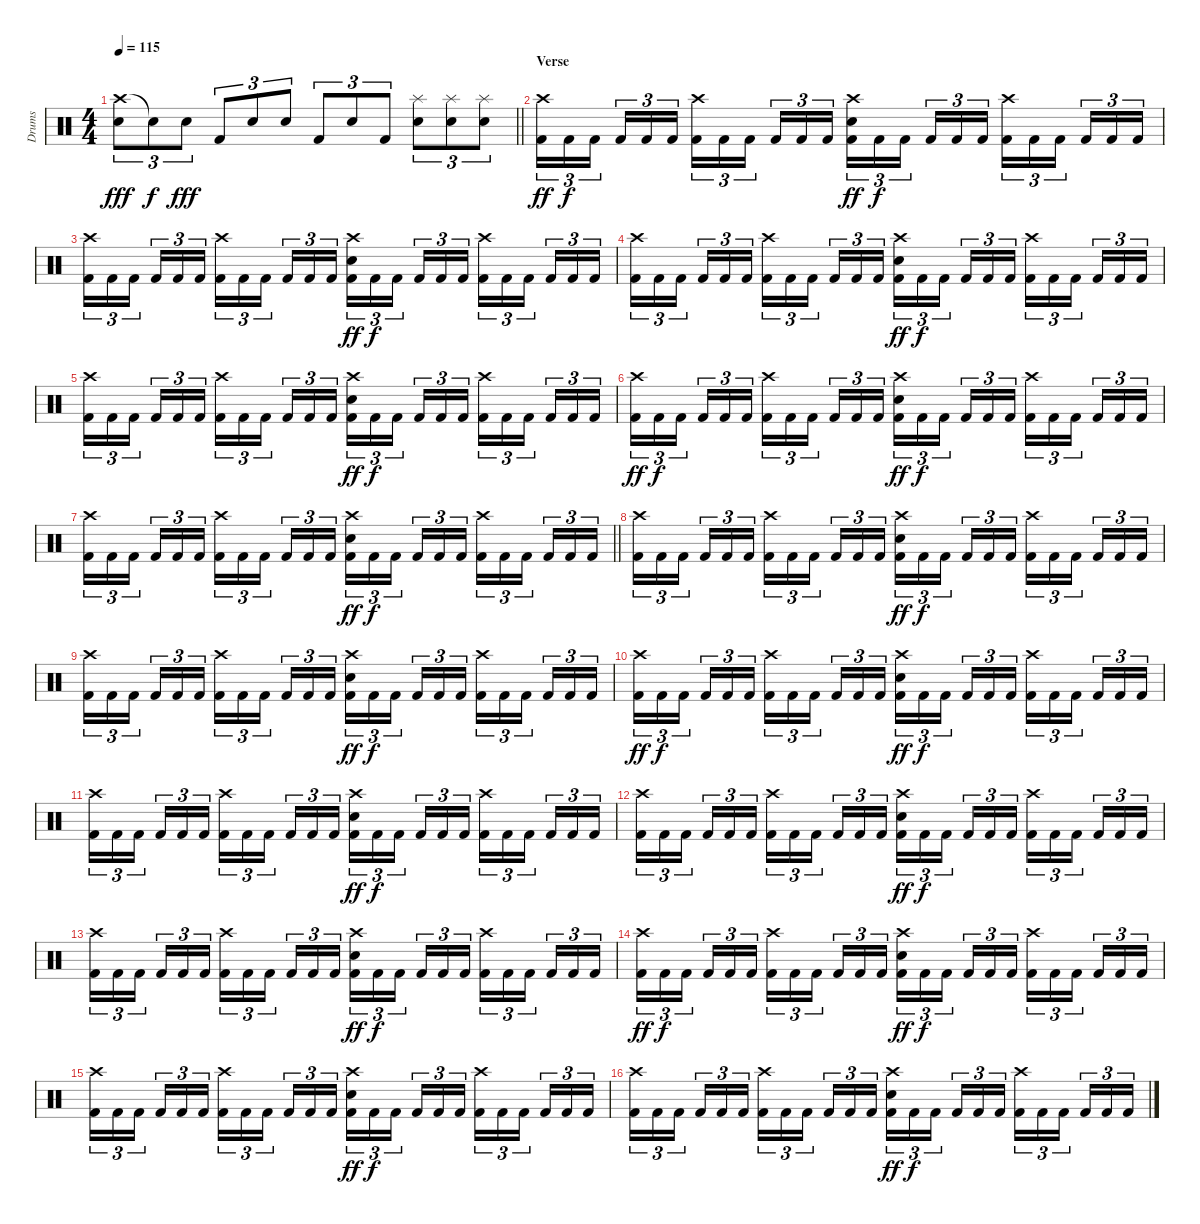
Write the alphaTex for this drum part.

\track ("Drums" "Drums") {instrument percussion}
\staff {score}
\articulation defaults
\ts (4 4)
\tempo 115
\clef neutral
\barLineRight lightlight
\ks c
("Crash high (hit)" "Snare (hit) 2").8{tu (3 2) dy fff} "Snare (hit)"{t}.8{tu (3 2) dy f} "Snare (hit) 2".8{tu (3 2) dy fff} "Kick (hit) 2".8{tu (3 2)} "Snare (hit) 2".8{tu (3 2)} "Snare (hit) 2".8{tu (3 2)} "Kick (hit) 2".8{tu (3 2)} "Snare (hit) 2".8{tu (3 2)} "Kick (hit) 2".8{tu (3 2)} ("Splash (hit)" "Snare (hit) 2").8{tu (3 2)} ("Splash (hit)" "Snare (hit) 2").8{tu (3 2)} ("Splash (hit)" "Snare (hit) 2").8{tu (3 2)} |
\section ("" "Verse")
("Crash high (hit)" "Kick (hit) 2").16{tu (3 2) dy ff} "Kick (hit) 2".16{tu (3 2) dy f} "Kick (hit) 2".16{tu (3 2) beam splitsecondary} "Kick (hit) 2".16{tu (3 2)} "Kick (hit) 2".16{tu (3 2)} "Kick (hit) 2".16{tu (3 2)} ("Crash high (hit)" "Kick (hit) 2").16{tu (3 2)} "Kick (hit) 2".16{tu (3 2)} "Kick (hit) 2".16{tu (3 2) beam splitsecondary} "Kick (hit) 2".16{tu (3 2)} "Kick (hit) 2".16{tu (3 2)} "Kick (hit) 2".16{tu (3 2)} ("Crash high (hit)" "Snare (hit) 2" "Kick (hit) 2").16{tu (3 2) dy ff} "Kick (hit) 2".16{tu (3 2) dy f} "Kick (hit) 2".16{tu (3 2) beam splitsecondary} "Kick (hit) 2".16{tu (3 2)} "Kick (hit) 2".16{tu (3 2)} "Kick (hit) 2".16{tu (3 2)} ("Crash high (hit)" "Kick (hit) 2").16{tu (3 2)} "Kick (hit) 2".16{tu (3 2)} "Kick (hit) 2".16{tu (3 2) beam splitsecondary} "Kick (hit) 2".16{tu (3 2)} "Kick (hit) 2".16{tu (3 2)} "Kick (hit) 2".16{tu (3 2)} |
("Crash high (hit)" "Kick (hit) 2").16{tu (3 2)} "Kick (hit) 2".16{tu (3 2)} "Kick (hit) 2".16{tu (3 2) beam splitsecondary} "Kick (hit) 2".16{tu (3 2)} "Kick (hit) 2".16{tu (3 2)} "Kick (hit) 2".16{tu (3 2)} ("Crash high (hit)" "Kick (hit) 2").16{tu (3 2)} "Kick (hit) 2".16{tu (3 2)} "Kick (hit) 2".16{tu (3 2) beam splitsecondary} "Kick (hit) 2".16{tu (3 2)} "Kick (hit) 2".16{tu (3 2)} "Kick (hit) 2".16{tu (3 2)} ("Crash high (hit)" "Snare (hit) 2" "Kick (hit) 2").16{tu (3 2) dy ff} "Kick (hit) 2".16{tu (3 2) dy f} "Kick (hit) 2".16{tu (3 2) beam splitsecondary} "Kick (hit) 2".16{tu (3 2)} "Kick (hit) 2".16{tu (3 2)} "Kick (hit) 2".16{tu (3 2)} ("Crash high (hit)" "Kick (hit) 2").16{tu (3 2)} "Kick (hit) 2".16{tu (3 2)} "Kick (hit) 2".16{tu (3 2) beam splitsecondary} "Kick (hit) 2".16{tu (3 2)} "Kick (hit) 2".16{tu (3 2)} "Kick (hit) 2".16{tu (3 2)} |
("Crash high (hit)" "Kick (hit) 2").16{tu (3 2)} "Kick (hit) 2".16{tu (3 2)} "Kick (hit) 2".16{tu (3 2) beam splitsecondary} "Kick (hit) 2".16{tu (3 2)} "Kick (hit) 2".16{tu (3 2)} "Kick (hit) 2".16{tu (3 2)} ("Crash high (hit)" "Kick (hit) 2").16{tu (3 2)} "Kick (hit) 2".16{tu (3 2)} "Kick (hit) 2".16{tu (3 2) beam splitsecondary} "Kick (hit) 2".16{tu (3 2)} "Kick (hit) 2".16{tu (3 2)} "Kick (hit) 2".16{tu (3 2)} ("Crash high (hit)" "Snare (hit) 2" "Kick (hit) 2").16{tu (3 2) dy ff} "Kick (hit) 2".16{tu (3 2) dy f} "Kick (hit) 2".16{tu (3 2) beam splitsecondary} "Kick (hit) 2".16{tu (3 2)} "Kick (hit) 2".16{tu (3 2)} "Kick (hit) 2".16{tu (3 2)} ("Crash high (hit)" "Kick (hit) 2").16{tu (3 2)} "Kick (hit) 2".16{tu (3 2)} "Kick (hit) 2".16{tu (3 2) beam splitsecondary} "Kick (hit) 2".16{tu (3 2)} "Kick (hit) 2".16{tu (3 2)} "Kick (hit) 2".16{tu (3 2)} |
("Crash high (hit)" "Kick (hit) 2").16{tu (3 2)} "Kick (hit) 2".16{tu (3 2)} "Kick (hit) 2".16{tu (3 2) beam splitsecondary} "Kick (hit) 2".16{tu (3 2)} "Kick (hit) 2".16{tu (3 2)} "Kick (hit) 2".16{tu (3 2)} ("Crash high (hit)" "Kick (hit) 2").16{tu (3 2)} "Kick (hit) 2".16{tu (3 2)} "Kick (hit) 2".16{tu (3 2) beam splitsecondary} "Kick (hit) 2".16{tu (3 2)} "Kick (hit) 2".16{tu (3 2)} "Kick (hit) 2".16{tu (3 2)} ("Crash high (hit)" "Snare (hit) 2" "Kick (hit) 2").16{tu (3 2) dy ff} "Kick (hit) 2".16{tu (3 2) dy f} "Kick (hit) 2".16{tu (3 2) beam splitsecondary} "Kick (hit) 2".16{tu (3 2)} "Kick (hit) 2".16{tu (3 2)} "Kick (hit) 2".16{tu (3 2)} ("Crash high (hit)" "Kick (hit) 2").16{tu (3 2)} "Kick (hit) 2".16{tu (3 2)} "Kick (hit) 2".16{tu (3 2) beam splitsecondary} "Kick (hit) 2".16{tu (3 2)} "Kick (hit) 2".16{tu (3 2)} "Kick (hit) 2".16{tu (3 2)} |
("Crash high (hit)" "Kick (hit) 2").16{tu (3 2) dy ff} "Kick (hit) 2".16{tu (3 2) dy f} "Kick (hit) 2".16{tu (3 2) beam splitsecondary} "Kick (hit) 2".16{tu (3 2)} "Kick (hit) 2".16{tu (3 2)} "Kick (hit) 2".16{tu (3 2)} ("Crash high (hit)" "Kick (hit) 2").16{tu (3 2)} "Kick (hit) 2".16{tu (3 2)} "Kick (hit) 2".16{tu (3 2) beam splitsecondary} "Kick (hit) 2".16{tu (3 2)} "Kick (hit) 2".16{tu (3 2)} "Kick (hit) 2".16{tu (3 2)} ("Crash high (hit)" "Snare (hit) 2" "Kick (hit) 2").16{tu (3 2) dy ff} "Kick (hit) 2".16{tu (3 2) dy f} "Kick (hit) 2".16{tu (3 2) beam splitsecondary} "Kick (hit) 2".16{tu (3 2)} "Kick (hit) 2".16{tu (3 2)} "Kick (hit) 2".16{tu (3 2)} ("Crash high (hit)" "Kick (hit) 2").16{tu (3 2)} "Kick (hit) 2".16{tu (3 2)} "Kick (hit) 2".16{tu (3 2) beam splitsecondary} "Kick (hit) 2".16{tu (3 2)} "Kick (hit) 2".16{tu (3 2)} "Kick (hit) 2".16{tu (3 2)} |
\barLineRight lightlight
("Crash high (hit)" "Kick (hit) 2").16{tu (3 2)} "Kick (hit) 2".16{tu (3 2)} "Kick (hit) 2".16{tu (3 2) beam splitsecondary} "Kick (hit) 2".16{tu (3 2)} "Kick (hit) 2".16{tu (3 2)} "Kick (hit) 2".16{tu (3 2)} ("Crash high (hit)" "Kick (hit) 2").16{tu (3 2)} "Kick (hit) 2".16{tu (3 2)} "Kick (hit) 2".16{tu (3 2) beam splitsecondary} "Kick (hit) 2".16{tu (3 2)} "Kick (hit) 2".16{tu (3 2)} "Kick (hit) 2".16{tu (3 2)} ("Crash high (hit)" "Snare (hit) 2" "Kick (hit) 2").16{tu (3 2) dy ff} "Kick (hit) 2".16{tu (3 2) dy f} "Kick (hit) 2".16{tu (3 2) beam splitsecondary} "Kick (hit) 2".16{tu (3 2)} "Kick (hit) 2".16{tu (3 2)} "Kick (hit) 2".16{tu (3 2)} ("Crash high (hit)" "Kick (hit) 2").16{tu (3 2)} "Kick (hit) 2".16{tu (3 2)} "Kick (hit) 2".16{tu (3 2) beam splitsecondary} "Kick (hit) 2".16{tu (3 2)} "Kick (hit) 2".16{tu (3 2)} "Kick (hit) 2".16{tu (3 2)} |
("Crash high (hit)" "Kick (hit) 2").16{tu (3 2)} "Kick (hit) 2".16{tu (3 2)} "Kick (hit) 2".16{tu (3 2) beam splitsecondary} "Kick (hit) 2".16{tu (3 2)} "Kick (hit) 2".16{tu (3 2)} "Kick (hit) 2".16{tu (3 2)} ("Crash high (hit)" "Kick (hit) 2").16{tu (3 2)} "Kick (hit) 2".16{tu (3 2)} "Kick (hit) 2".16{tu (3 2) beam splitsecondary} "Kick (hit) 2".16{tu (3 2)} "Kick (hit) 2".16{tu (3 2)} "Kick (hit) 2".16{tu (3 2)} ("Crash high (hit)" "Snare (hit) 2" "Kick (hit) 2").16{tu (3 2) dy ff} "Kick (hit) 2".16{tu (3 2) dy f} "Kick (hit) 2".16{tu (3 2) beam splitsecondary} "Kick (hit) 2".16{tu (3 2)} "Kick (hit) 2".16{tu (3 2)} "Kick (hit) 2".16{tu (3 2)} ("Crash high (hit)" "Kick (hit) 2").16{tu (3 2)} "Kick (hit) 2".16{tu (3 2)} "Kick (hit) 2".16{tu (3 2) beam splitsecondary} "Kick (hit) 2".16{tu (3 2)} "Kick (hit) 2".16{tu (3 2)} "Kick (hit) 2".16{tu (3 2)} |
("Crash high (hit)" "Kick (hit) 2").16{tu (3 2)} "Kick (hit) 2".16{tu (3 2)} "Kick (hit) 2".16{tu (3 2) beam splitsecondary} "Kick (hit) 2".16{tu (3 2)} "Kick (hit) 2".16{tu (3 2)} "Kick (hit) 2".16{tu (3 2)} ("Crash high (hit)" "Kick (hit) 2").16{tu (3 2)} "Kick (hit) 2".16{tu (3 2)} "Kick (hit) 2".16{tu (3 2) beam splitsecondary} "Kick (hit) 2".16{tu (3 2)} "Kick (hit) 2".16{tu (3 2)} "Kick (hit) 2".16{tu (3 2)} ("Crash high (hit)" "Snare (hit) 2" "Kick (hit) 2").16{tu (3 2) dy ff} "Kick (hit) 2".16{tu (3 2) dy f} "Kick (hit) 2".16{tu (3 2) beam splitsecondary} "Kick (hit) 2".16{tu (3 2)} "Kick (hit) 2".16{tu (3 2)} "Kick (hit) 2".16{tu (3 2)} ("Crash high (hit)" "Kick (hit) 2").16{tu (3 2)} "Kick (hit) 2".16{tu (3 2)} "Kick (hit) 2".16{tu (3 2) beam splitsecondary} "Kick (hit) 2".16{tu (3 2)} "Kick (hit) 2".16{tu (3 2)} "Kick (hit) 2".16{tu (3 2)} |
("Crash high (hit)" "Kick (hit) 2").16{tu (3 2) dy ff} "Kick (hit) 2".16{tu (3 2) dy f} "Kick (hit) 2".16{tu (3 2) beam splitsecondary} "Kick (hit) 2".16{tu (3 2)} "Kick (hit) 2".16{tu (3 2)} "Kick (hit) 2".16{tu (3 2)} ("Crash high (hit)" "Kick (hit) 2").16{tu (3 2)} "Kick (hit) 2".16{tu (3 2)} "Kick (hit) 2".16{tu (3 2) beam splitsecondary} "Kick (hit) 2".16{tu (3 2)} "Kick (hit) 2".16{tu (3 2)} "Kick (hit) 2".16{tu (3 2)} ("Crash high (hit)" "Snare (hit) 2" "Kick (hit) 2").16{tu (3 2) dy ff} "Kick (hit) 2".16{tu (3 2) dy f} "Kick (hit) 2".16{tu (3 2) beam splitsecondary} "Kick (hit) 2".16{tu (3 2)} "Kick (hit) 2".16{tu (3 2)} "Kick (hit) 2".16{tu (3 2)} ("Crash high (hit)" "Kick (hit) 2").16{tu (3 2)} "Kick (hit) 2".16{tu (3 2)} "Kick (hit) 2".16{tu (3 2) beam splitsecondary} "Kick (hit) 2".16{tu (3 2)} "Kick (hit) 2".16{tu (3 2)} "Kick (hit) 2".16{tu (3 2)} |
("Crash high (hit)" "Kick (hit) 2").16{tu (3 2)} "Kick (hit) 2".16{tu (3 2)} "Kick (hit) 2".16{tu (3 2) beam splitsecondary} "Kick (hit) 2".16{tu (3 2)} "Kick (hit) 2".16{tu (3 2)} "Kick (hit) 2".16{tu (3 2)} ("Crash high (hit)" "Kick (hit) 2").16{tu (3 2)} "Kick (hit) 2".16{tu (3 2)} "Kick (hit) 2".16{tu (3 2) beam splitsecondary} "Kick (hit) 2".16{tu (3 2)} "Kick (hit) 2".16{tu (3 2)} "Kick (hit) 2".16{tu (3 2)} ("Crash high (hit)" "Snare (hit) 2" "Kick (hit) 2").16{tu (3 2) dy ff} "Kick (hit) 2".16{tu (3 2) dy f} "Kick (hit) 2".16{tu (3 2) beam splitsecondary} "Kick (hit) 2".16{tu (3 2)} "Kick (hit) 2".16{tu (3 2)} "Kick (hit) 2".16{tu (3 2)} ("Crash high (hit)" "Kick (hit) 2").16{tu (3 2)} "Kick (hit) 2".16{tu (3 2)} "Kick (hit) 2".16{tu (3 2) beam splitsecondary} "Kick (hit) 2".16{tu (3 2)} "Kick (hit) 2".16{tu (3 2)} "Kick (hit) 2".16{tu (3 2)} |
("Crash high (hit)" "Kick (hit) 2").16{tu (3 2)} "Kick (hit) 2".16{tu (3 2)} "Kick (hit) 2".16{tu (3 2) beam splitsecondary} "Kick (hit) 2".16{tu (3 2)} "Kick (hit) 2".16{tu (3 2)} "Kick (hit) 2".16{tu (3 2)} ("Crash high (hit)" "Kick (hit) 2").16{tu (3 2)} "Kick (hit) 2".16{tu (3 2)} "Kick (hit) 2".16{tu (3 2) beam splitsecondary} "Kick (hit) 2".16{tu (3 2)} "Kick (hit) 2".16{tu (3 2)} "Kick (hit) 2".16{tu (3 2)} ("Crash high (hit)" "Snare (hit) 2" "Kick (hit) 2").16{tu (3 2) dy ff} "Kick (hit) 2".16{tu (3 2) dy f} "Kick (hit) 2".16{tu (3 2) beam splitsecondary} "Kick (hit) 2".16{tu (3 2)} "Kick (hit) 2".16{tu (3 2)} "Kick (hit) 2".16{tu (3 2)} ("Crash high (hit)" "Kick (hit) 2").16{tu (3 2)} "Kick (hit) 2".16{tu (3 2)} "Kick (hit) 2".16{tu (3 2) beam splitsecondary} "Kick (hit) 2".16{tu (3 2)} "Kick (hit) 2".16{tu (3 2)} "Kick (hit) 2".16{tu (3 2)} |
("Crash high (hit)" "Kick (hit) 2").16{tu (3 2)} "Kick (hit) 2".16{tu (3 2)} "Kick (hit) 2".16{tu (3 2) beam splitsecondary} "Kick (hit) 2".16{tu (3 2)} "Kick (hit) 2".16{tu (3 2)} "Kick (hit) 2".16{tu (3 2)} ("Crash high (hit)" "Kick (hit) 2").16{tu (3 2)} "Kick (hit) 2".16{tu (3 2)} "Kick (hit) 2".16{tu (3 2) beam splitsecondary} "Kick (hit) 2".16{tu (3 2)} "Kick (hit) 2".16{tu (3 2)} "Kick (hit) 2".16{tu (3 2)} ("Crash high (hit)" "Snare (hit) 2" "Kick (hit) 2").16{tu (3 2) dy ff} "Kick (hit) 2".16{tu (3 2) dy f} "Kick (hit) 2".16{tu (3 2) beam splitsecondary} "Kick (hit) 2".16{tu (3 2)} "Kick (hit) 2".16{tu (3 2)} "Kick (hit) 2".16{tu (3 2)} ("Crash high (hit)" "Kick (hit) 2").16{tu (3 2)} "Kick (hit) 2".16{tu (3 2)} "Kick (hit) 2".16{tu (3 2) beam splitsecondary} "Kick (hit) 2".16{tu (3 2)} "Kick (hit) 2".16{tu (3 2)} "Kick (hit) 2".16{tu (3 2)} |
("Crash high (hit)" "Kick (hit) 2").16{tu (3 2) dy ff} "Kick (hit) 2".16{tu (3 2) dy f} "Kick (hit) 2".16{tu (3 2) beam splitsecondary} "Kick (hit) 2".16{tu (3 2)} "Kick (hit) 2".16{tu (3 2)} "Kick (hit) 2".16{tu (3 2)} ("Crash high (hit)" "Kick (hit) 2").16{tu (3 2)} "Kick (hit) 2".16{tu (3 2)} "Kick (hit) 2".16{tu (3 2) beam splitsecondary} "Kick (hit) 2".16{tu (3 2)} "Kick (hit) 2".16{tu (3 2)} "Kick (hit) 2".16{tu (3 2)} ("Crash high (hit)" "Snare (hit) 2" "Kick (hit) 2").16{tu (3 2) dy ff} "Kick (hit) 2".16{tu (3 2) dy f} "Kick (hit) 2".16{tu (3 2) beam splitsecondary} "Kick (hit) 2".16{tu (3 2)} "Kick (hit) 2".16{tu (3 2)} "Kick (hit) 2".16{tu (3 2)} ("Crash high (hit)" "Kick (hit) 2").16{tu (3 2)} "Kick (hit) 2".16{tu (3 2)} "Kick (hit) 2".16{tu (3 2) beam splitsecondary} "Kick (hit) 2".16{tu (3 2)} "Kick (hit) 2".16{tu (3 2)} "Kick (hit) 2".16{tu (3 2)} |
("Crash high (hit)" "Kick (hit) 2").16{tu (3 2)} "Kick (hit) 2".16{tu (3 2)} "Kick (hit) 2".16{tu (3 2) beam splitsecondary} "Kick (hit) 2".16{tu (3 2)} "Kick (hit) 2".16{tu (3 2)} "Kick (hit) 2".16{tu (3 2)} ("Crash high (hit)" "Kick (hit) 2").16{tu (3 2)} "Kick (hit) 2".16{tu (3 2)} "Kick (hit) 2".16{tu (3 2) beam splitsecondary} "Kick (hit) 2".16{tu (3 2)} "Kick (hit) 2".16{tu (3 2)} "Kick (hit) 2".16{tu (3 2)} ("Crash high (hit)" "Snare (hit) 2" "Kick (hit) 2").16{tu (3 2) dy ff} "Kick (hit) 2".16{tu (3 2) dy f} "Kick (hit) 2".16{tu (3 2) beam splitsecondary} "Kick (hit) 2".16{tu (3 2)} "Kick (hit) 2".16{tu (3 2)} "Kick (hit) 2".16{tu (3 2)} ("Crash high (hit)" "Kick (hit) 2").16{tu (3 2)} "Kick (hit) 2".16{tu (3 2)} "Kick (hit) 2".16{tu (3 2) beam splitsecondary} "Kick (hit) 2".16{tu (3 2)} "Kick (hit) 2".16{tu (3 2)} "Kick (hit) 2".16{tu (3 2)} |
("Crash high (hit)" "Kick (hit) 2").16{tu (3 2)} "Kick (hit) 2".16{tu (3 2)} "Kick (hit) 2".16{tu (3 2) beam splitsecondary} "Kick (hit) 2".16{tu (3 2)} "Kick (hit) 2".16{tu (3 2)} "Kick (hit) 2".16{tu (3 2)} ("Crash high (hit)" "Kick (hit) 2").16{tu (3 2)} "Kick (hit) 2".16{tu (3 2)} "Kick (hit) 2".16{tu (3 2) beam splitsecondary} "Kick (hit) 2".16{tu (3 2)} "Kick (hit) 2".16{tu (3 2)} "Kick (hit) 2".16{tu (3 2)} ("Crash high (hit)" "Snare (hit) 2" "Kick (hit) 2").16{tu (3 2) dy ff} "Kick (hit) 2".16{tu (3 2) dy f} "Kick (hit) 2".16{tu (3 2) beam splitsecondary} "Kick (hit) 2".16{tu (3 2)} "Kick (hit) 2".16{tu (3 2)} "Kick (hit) 2".16{tu (3 2)} ("Crash high (hit)" "Kick (hit) 2").16{tu (3 2)} "Kick (hit) 2".16{tu (3 2)} "Kick (hit) 2".16{tu (3 2) beam splitsecondary} "Kick (hit) 2".16{tu (3 2)} "Kick (hit) 2".16{tu (3 2)} "Kick (hit) 2".16{tu (3 2)}
